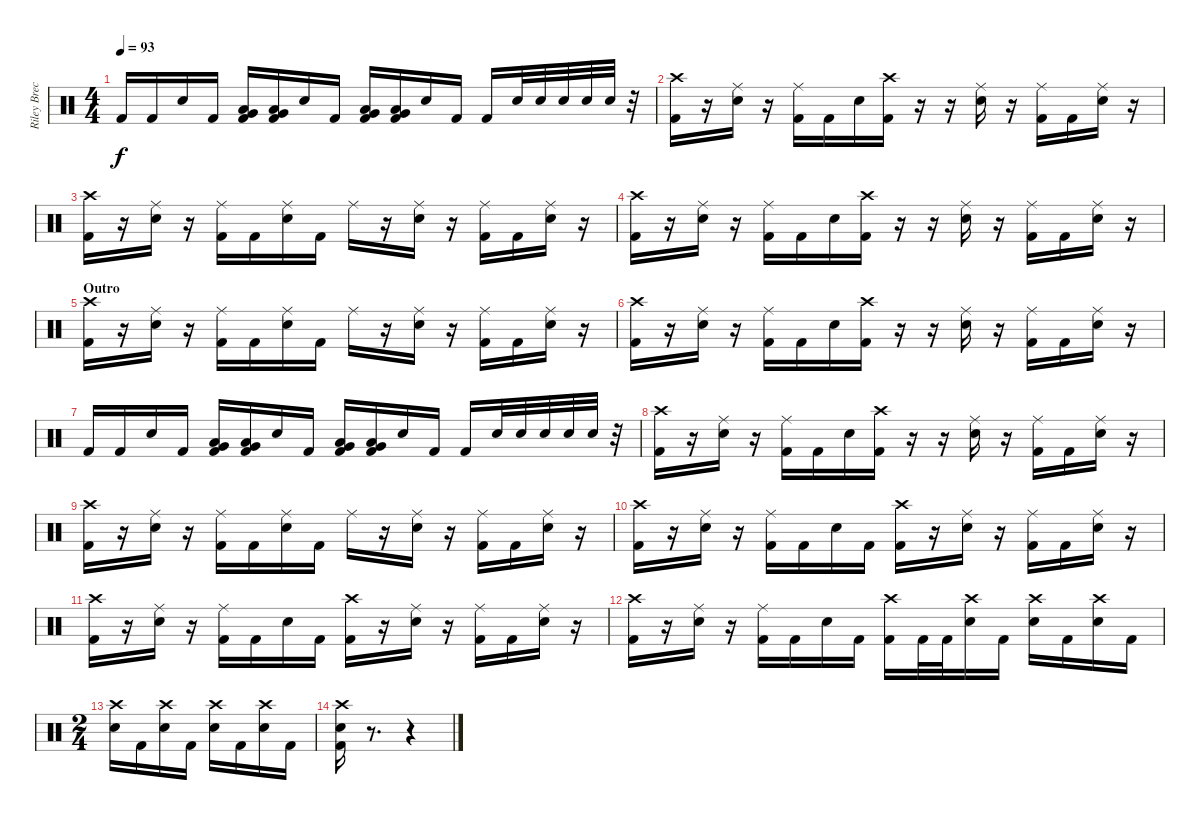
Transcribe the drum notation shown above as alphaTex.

\track ("Riley Breckenridge" "Riley Brec") {instrument percussion}
\staff {score}
\articulation defaults
\ts (4 4)
\tempo 93
\clef neutral
\ks c "Kick (hit) 2".16{dy f} "Kick (hit) 2".16 "Electric Snare (hit)".16 "Kick (hit) 2".16
("Kick (hit) 2" "Very Low Tom (hit)" "Low Floor Tom (hit)").16 ("Kick (hit) 2" "Very Low Tom (hit)" "Low Floor Tom (hit)").16 "Electric Snare (hit)".16 "Kick (hit) 2".16 ("Kick (hit) 2" "Very Low Tom (hit)" "Low Floor Tom (hit)").16 ("Kick (hit) 2" "Very Low Tom (hit)" "Low Floor Tom (hit)").16 "Electric Snare (hit)".16 "Kick (hit) 2".16 "Kick (hit) 2".16 "Electric Snare (hit)".32 "Electric Snare (hit)".32 "Electric Snare (hit)".32 "Electric Snare (hit)".32 "Electric Snare (hit)".32 r.32 |
("Kick (hit) 2" "Crash high (hit)").16 r.16 ("Electric Snare (hit)" "Ride (middle)").16 r.16 ("Kick (hit) 2" "Ride (middle)").16 "Kick (hit) 2".16 "Electric Snare (hit)".16 ("Kick (hit) 2" "Crash high (hit)").16 r.16 r.16 ("Electric Snare (hit)" "Ride (middle)").16 r.16 ("Kick (hit) 2" "Ride (middle)").16 "Kick (hit) 2".16 ("Electric Snare (hit)" "Ride (middle)").16 r.16 |
("Kick (hit) 2" "Crash high (hit)").16 r.16 ("Electric Snare (hit)" "Ride (middle)").16 r.16 ("Kick (hit) 2" "Ride (middle)").16 "Kick (hit) 2".16 ("Electric Snare (hit)" "Ride (middle)").16 "Kick (hit) 2".16 "Ride (middle)".16 r.16 ("Electric Snare (hit)" "Ride (middle)").16 r.16 ("Kick (hit) 2" "Ride (middle)").16 "Kick (hit) 2".16 ("Electric Snare (hit)" "Ride (middle)").16 r.16 |
("Kick (hit) 2" "Crash high (hit)").16 r.16 ("Electric Snare (hit)" "Ride (middle)").16 r.16 ("Kick (hit) 2" "Ride (middle)").16 "Kick (hit) 2".16 "Electric Snare (hit)".16 ("Kick (hit) 2" "Crash high (hit)").16 r.16 r.16 ("Electric Snare (hit)" "Ride (middle)").16 r.16 ("Kick (hit) 2" "Ride (middle)").16 "Kick (hit) 2".16 ("Electric Snare (hit)" "Ride (middle)").16 r.16 |
\section ("" "Outro")
("Kick (hit) 2" "Crash high (hit)").16 r.16 ("Electric Snare (hit)" "Ride (middle)").16 r.16 ("Kick (hit) 2" "Ride (middle)").16 "Kick (hit) 2".16 ("Electric Snare (hit)" "Ride (middle)").16 "Kick (hit) 2".16 "Ride (middle)".16 r.16 ("Electric Snare (hit)" "Ride (middle)").16 r.16 ("Kick (hit) 2" "Ride (middle)").16 "Kick (hit) 2".16 ("Electric Snare (hit)" "Ride (middle)").16 r.16 |
("Kick (hit) 2" "Crash high (hit)").16 r.16 ("Electric Snare (hit)" "Ride (middle)").16 r.16 ("Kick (hit) 2" "Ride (middle)").16 "Kick (hit) 2".16 "Electric Snare (hit)".16 ("Kick (hit) 2" "Crash high (hit)").16 r.16 r.16 ("Electric Snare (hit)" "Ride (middle)").16 r.16 ("Kick (hit) 2" "Ride (middle)").16 "Kick (hit) 2".16 ("Electric Snare (hit)" "Ride (middle)").16 r.16 |
"Kick (hit) 2".16 "Kick (hit) 2".16 "Electric Snare (hit)".16 "Kick (hit) 2".16 ("Kick (hit) 2" "Very Low Tom (hit)" "Low Floor Tom (hit)").16 ("Kick (hit) 2" "Very Low Tom (hit)" "Low Floor Tom (hit)").16 "Electric Snare (hit)".16 "Kick (hit) 2".16 ("Kick (hit) 2" "Very Low Tom (hit)" "Low Floor Tom (hit)").16 ("Kick (hit) 2" "Very Low Tom (hit)" "Low Floor Tom (hit)").16 "Electric Snare (hit)".16 "Kick (hit) 2".16 "Kick (hit) 2".16 "Electric Snare (hit)".32 "Electric Snare (hit)".32 "Electric Snare (hit)".32 "Electric Snare (hit)".32 "Electric Snare (hit)".32 r.32 |
("Kick (hit) 2" "Crash high (hit)").16 r.16 ("Electric Snare (hit)" "Ride (middle)").16 r.16 ("Kick (hit) 2" "Ride (middle)").16 "Kick (hit) 2".16 "Electric Snare (hit)".16 ("Kick (hit) 2" "Crash high (hit)").16 r.16 r.16 ("Electric Snare (hit)" "Ride (middle)").16 r.16 ("Kick (hit) 2" "Ride (middle)").16 "Kick (hit) 2".16 ("Electric Snare (hit)" "Ride (middle)").16 r.16 |
("Kick (hit) 2" "Crash high (hit)").16 r.16 ("Electric Snare (hit)" "Ride (middle)").16 r.16 ("Kick (hit) 2" "Ride (middle)").16 "Kick (hit) 2".16 ("Electric Snare (hit)" "Ride (middle)").16 "Kick (hit) 2".16 "Ride (middle)".16 r.16 ("Electric Snare (hit)" "Ride (middle)").16 r.16 ("Kick (hit) 2" "Ride (middle)").16 "Kick (hit) 2".16 ("Electric Snare (hit)" "Ride (middle)").16 r.16 |
("Kick (hit) 2" "Crash high (hit)").16 r.16 ("Electric Snare (hit)" "Ride (middle)").16 r.16 ("Kick (hit) 2" "Ride (middle)").16 "Kick (hit) 2".16 "Electric Snare (hit)".16 "Kick (hit) 2".16 ("Kick (hit) 2" "Crash high (hit)").16 r.16 ("Electric Snare (hit)" "Ride (middle)").16 r.16 ("Kick (hit) 2" "Ride (middle)").16 "Kick (hit) 2".16 ("Electric Snare (hit)" "Ride (middle)").16 r.16 |
("Kick (hit) 2" "Crash high (hit)").16 r.16 ("Electric Snare (hit)" "Ride (middle)").16 r.16 ("Kick (hit) 2" "Ride (middle)").16 "Kick (hit) 2".16 "Electric Snare (hit)".16 "Kick (hit) 2".16 ("Kick (hit) 2" "Crash high (hit)").16 r.16 ("Electric Snare (hit)" "Ride (middle)").16 r.16 ("Kick (hit) 2" "Ride (middle)").16 "Kick (hit) 2".16 ("Electric Snare (hit)" "Ride (middle)").16 r.16 |
("Kick (hit) 2" "Crash high (hit)").16 r.16 ("Electric Snare (hit)" "Ride (middle)").16 r.16 ("Kick (hit) 2" "Ride (middle)").16 "Kick (hit) 2".16 "Electric Snare (hit)".16 "Kick (hit) 2".16 ("Kick (hit) 2" "Crash high (hit)").16 "Kick (hit) 2".32 "Kick (hit) 2".32 ("Electric Snare (hit)" "Crash high (hit)").16 "Kick (hit) 2".16 ("Electric Snare (hit)" "Crash high (hit)").16 "Kick (hit) 2".16 ("Electric Snare (hit)" "Crash high (hit)").16 "Kick (hit) 2".16 |
\ts (2 4)
("Electric Snare (hit)" "Crash high (hit)").16 "Kick (hit) 2".16 ("Electric Snare (hit)" "Crash high (hit)").16 "Kick (hit) 2".16 ("Electric Snare (hit)" "Crash high (hit)").16 "Kick (hit) 2".16 ("Electric Snare (hit)" "Crash high (hit)").16 "Kick (hit) 2".16 |
("Kick (hit) 2" "Electric Snare (hit)" "Crash high (hit)").16 r.8{d} r.4
